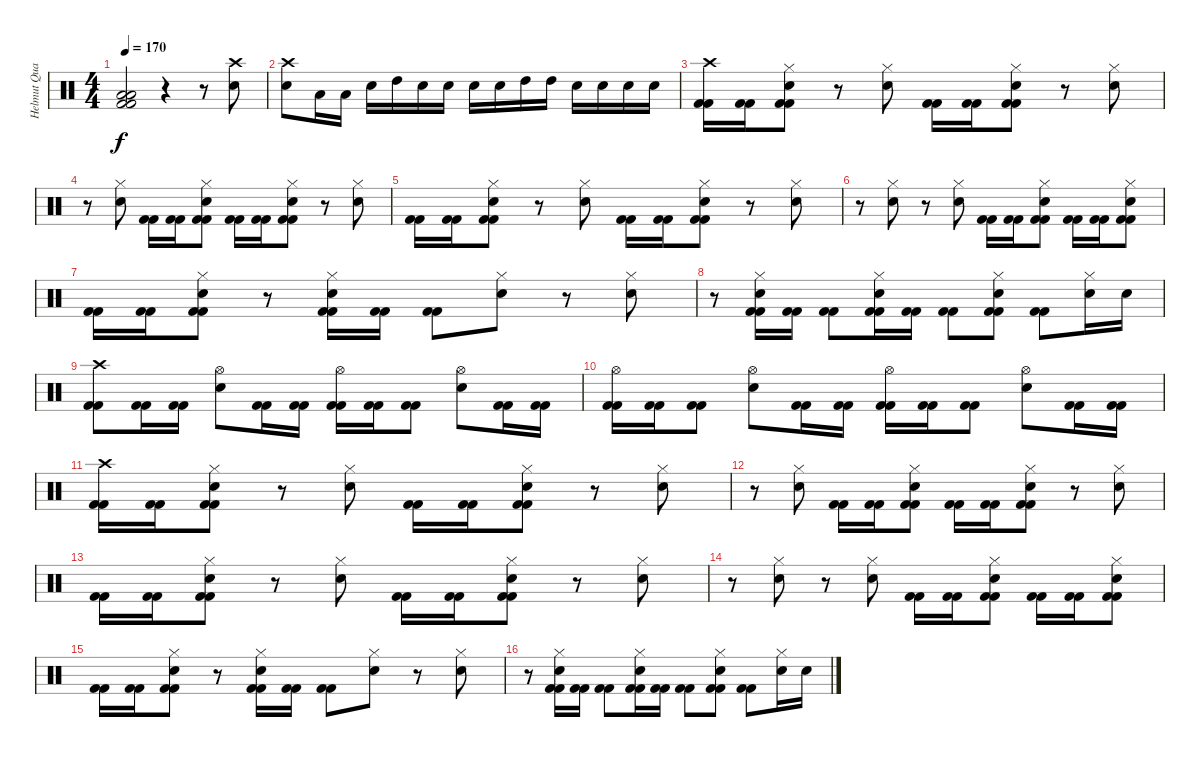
\track ("Helmut Quacken" "Helmut Qua") {instrument percussion}
\staff {score}
\articulation defaults
\ts (4 4)
\tempo 170
\clef neutral
\ks c
("Low Tom (hit)" "Low Tom (hit)" "Kick (hit) 2" "Kick (hit) 2").2{dy f} r.4 r.8 ("Crash high (hit)" "Electric Snare (hit)").8 |
("Crash high (hit)" "Electric Snare (hit)").8 "Low Tom (hit)".16 "Low Tom (hit)".16 "Electric Snare (hit)".16 "High Tom (hit)".16 "Electric Snare (hit)".16 "Electric Snare (hit)".16 "Electric Snare (hit)".16 "Electric Snare (hit)".16 "High Tom (hit)".16 "High Tom (hit)".16 "Electric Snare (hit)".16 "Electric Snare (hit)".16 "Electric Snare (hit)".16 "Electric Snare (hit)".16 |
("Crash high (hit)" "Kick (hit) 2" "Kick (hit) 2").16 ("Kick (hit) 2" "Kick (hit) 2").16 ("Hi-Hat (closed)" "Electric Snare (hit)" "Kick (hit) 2" "Kick (hit) 2").8 r.8 ("Hi-Hat (closed)" "Electric Snare (hit)").8 ("Kick (hit) 2" "Kick (hit) 2").16 ("Kick (hit) 2" "Kick (hit) 2").16 ("Hi-Hat (closed)" "Electric Snare (hit)" "Kick (hit) 2" "Kick (hit) 2").8 r.8 ("Hi-Hat (closed)" "Electric Snare (hit)").8 |
r.8 ("Hi-Hat (closed)" "Electric Snare (hit)").8 ("Kick (hit) 2" "Kick (hit) 2").16 ("Kick (hit) 2" "Kick (hit) 2").16 ("Hi-Hat (closed)" "Electric Snare (hit)" "Kick (hit) 2" "Kick (hit) 2").8 ("Kick (hit) 2" "Kick (hit) 2").16 ("Kick (hit) 2" "Kick (hit) 2").16 ("Hi-Hat (closed)" "Electric Snare (hit)" "Kick (hit) 2" "Kick (hit) 2").8 r.8 ("Hi-Hat (closed)" "Electric Snare (hit)").8 |
("Kick (hit) 2" "Kick (hit) 2").16 ("Kick (hit) 2" "Kick (hit) 2").16 ("Hi-Hat (closed)" "Electric Snare (hit)" "Kick (hit) 2" "Kick (hit) 2").8 r.8 ("Hi-Hat (closed)" "Electric Snare (hit)").8 ("Kick (hit) 2" "Kick (hit) 2").16 ("Kick (hit) 2" "Kick (hit) 2").16 ("Hi-Hat (closed)" "Electric Snare (hit)" "Kick (hit) 2" "Kick (hit) 2").8 r.8 ("Hi-Hat (closed)" "Electric Snare (hit)").8 |
r.8 ("Hi-Hat (closed)" "Electric Snare (hit)").8 r.8 ("Hi-Hat (closed)" "Electric Snare (hit)").8 ("Kick (hit) 2" "Kick (hit) 2").16 ("Kick (hit) 2" "Kick (hit) 2").16 ("Hi-Hat (closed)" "Electric Snare (hit)" "Kick (hit) 2" "Kick (hit) 2").8 ("Kick (hit) 2" "Kick (hit) 2").16 ("Kick (hit) 2" "Kick (hit) 2").16 ("Hi-Hat (closed)" "Electric Snare (hit)" "Kick (hit) 2" "Kick (hit) 2").8 |
("Kick (hit) 2" "Kick (hit) 2").16 ("Kick (hit) 2" "Kick (hit) 2").16 ("Hi-Hat (closed)" "Electric Snare (hit)" "Kick (hit) 2" "Kick (hit) 2").8 r.8 ("Hi-Hat (closed)" "Electric Snare (hit)" "Kick (hit) 2" "Kick (hit) 2").16 ("Kick (hit) 2" "Kick (hit) 2").16 ("Kick (hit) 2" "Kick (hit) 2").8 ("Hi-Hat (closed)" "Electric Snare (hit)").8 r.8 ("Hi-Hat (closed)" "Electric Snare (hit)").8 |
r.8 ("Hi-Hat (closed)" "Electric Snare (hit)" "Kick (hit) 2" "Kick (hit) 2").16 ("Kick (hit) 2" "Kick (hit) 2").16 ("Kick (hit) 2" "Kick (hit) 2").8 ("Hi-Hat (closed)" "Electric Snare (hit)" "Kick (hit) 2" "Kick (hit) 2").16 ("Kick (hit) 2" "Kick (hit) 2").16 ("Kick (hit) 2" "Kick (hit) 2").8 ("Hi-Hat (closed)" "Electric Snare (hit)" "Kick (hit) 2" "Kick (hit) 2").8 ("Kick (hit) 2" "Kick (hit) 2").8 ("Hi-Hat (closed)" "Electric Snare (hit)").16 "Electric Snare (hit)".16 |
("Crash high (hit)" "Kick (hit) 2" "Kick (hit) 2").8 ("Kick (hit) 2" "Kick (hit) 2").16 ("Kick (hit) 2" "Kick (hit) 2").16 ("Hi-Hat (open)" "Electric Snare (hit)").8 ("Kick (hit) 2" "Kick (hit) 2").16 ("Kick (hit) 2" "Kick (hit) 2").16 ("Hi-Hat (open)" "Kick (hit) 2" "Kick (hit) 2").16 ("Kick (hit) 2" "Kick (hit) 2").16 ("Kick (hit) 2" "Kick (hit) 2").8 ("Hi-Hat (open)" "Electric Snare (hit)").8 ("Kick (hit) 2" "Kick (hit) 2").16 ("Kick (hit) 2" "Kick (hit) 2").16 |
("Hi-Hat (open)" "Kick (hit) 2" "Kick (hit) 2").16 ("Kick (hit) 2" "Kick (hit) 2").16 ("Kick (hit) 2" "Kick (hit) 2").8 ("Hi-Hat (open)" "Electric Snare (hit)").8 ("Kick (hit) 2" "Kick (hit) 2").16 ("Kick (hit) 2" "Kick (hit) 2").16 ("Hi-Hat (open)" "Kick (hit) 2" "Kick (hit) 2").16 ("Kick (hit) 2" "Kick (hit) 2").16 ("Kick (hit) 2" "Kick (hit) 2").8 ("Hi-Hat (open)" "Electric Snare (hit)").8 ("Kick (hit) 2" "Kick (hit) 2").16 ("Kick (hit) 2" "Kick (hit) 2").16 |
("Crash high (hit)" "Kick (hit) 2" "Kick (hit) 2").16 ("Kick (hit) 2" "Kick (hit) 2").16 ("Hi-Hat (closed)" "Electric Snare (hit)" "Kick (hit) 2" "Kick (hit) 2").8 r.8 ("Hi-Hat (closed)" "Electric Snare (hit)").8 ("Kick (hit) 2" "Kick (hit) 2").16 ("Kick (hit) 2" "Kick (hit) 2").16 ("Hi-Hat (closed)" "Electric Snare (hit)" "Kick (hit) 2" "Kick (hit) 2").8 r.8 ("Hi-Hat (closed)" "Electric Snare (hit)").8 |
r.8 ("Hi-Hat (closed)" "Electric Snare (hit)").8 ("Kick (hit) 2" "Kick (hit) 2").16 ("Kick (hit) 2" "Kick (hit) 2").16 ("Hi-Hat (closed)" "Electric Snare (hit)" "Kick (hit) 2" "Kick (hit) 2").8 ("Kick (hit) 2" "Kick (hit) 2").16 ("Kick (hit) 2" "Kick (hit) 2").16 ("Hi-Hat (closed)" "Electric Snare (hit)" "Kick (hit) 2" "Kick (hit) 2").8 r.8 ("Hi-Hat (closed)" "Electric Snare (hit)").8 |
("Kick (hit) 2" "Kick (hit) 2").16 ("Kick (hit) 2" "Kick (hit) 2").16 ("Hi-Hat (closed)" "Electric Snare (hit)" "Kick (hit) 2" "Kick (hit) 2").8 r.8 ("Hi-Hat (closed)" "Electric Snare (hit)").8 ("Kick (hit) 2" "Kick (hit) 2").16 ("Kick (hit) 2" "Kick (hit) 2").16 ("Hi-Hat (closed)" "Electric Snare (hit)" "Kick (hit) 2" "Kick (hit) 2").8 r.8 ("Hi-Hat (closed)" "Electric Snare (hit)").8 |
r.8 ("Hi-Hat (closed)" "Electric Snare (hit)").8 r.8 ("Hi-Hat (closed)" "Electric Snare (hit)").8 ("Kick (hit) 2" "Kick (hit) 2").16 ("Kick (hit) 2" "Kick (hit) 2").16 ("Hi-Hat (closed)" "Electric Snare (hit)" "Kick (hit) 2" "Kick (hit) 2").8 ("Kick (hit) 2" "Kick (hit) 2").16 ("Kick (hit) 2" "Kick (hit) 2").16 ("Hi-Hat (closed)" "Electric Snare (hit)" "Kick (hit) 2" "Kick (hit) 2").8 |
("Kick (hit) 2" "Kick (hit) 2").16 ("Kick (hit) 2" "Kick (hit) 2").16 ("Hi-Hat (closed)" "Electric Snare (hit)" "Kick (hit) 2" "Kick (hit) 2").8 r.8 ("Hi-Hat (closed)" "Electric Snare (hit)" "Kick (hit) 2" "Kick (hit) 2").16 ("Kick (hit) 2" "Kick (hit) 2").16 ("Kick (hit) 2" "Kick (hit) 2").8 ("Hi-Hat (closed)" "Electric Snare (hit)").8 r.8 ("Hi-Hat (closed)" "Electric Snare (hit)").8 |
r.8 ("Hi-Hat (closed)" "Electric Snare (hit)" "Kick (hit) 2" "Kick (hit) 2").16 ("Kick (hit) 2" "Kick (hit) 2").16 ("Kick (hit) 2" "Kick (hit) 2").8 ("Hi-Hat (closed)" "Electric Snare (hit)" "Kick (hit) 2" "Kick (hit) 2").16 ("Kick (hit) 2" "Kick (hit) 2").16 ("Kick (hit) 2" "Kick (hit) 2").8 ("Hi-Hat (closed)" "Electric Snare (hit)" "Kick (hit) 2" "Kick (hit) 2").8 ("Kick (hit) 2" "Kick (hit) 2").8 ("Hi-Hat (closed)" "Electric Snare (hit)").16 "Electric Snare (hit)".16
